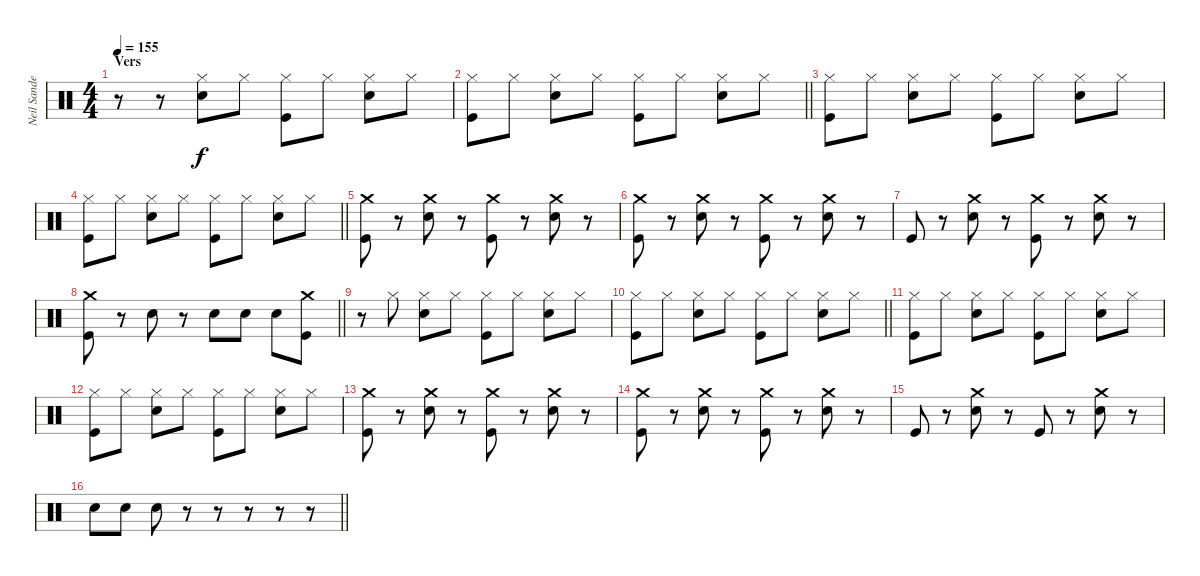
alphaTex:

\track ("Neil Sanderson" "Neil Sande") {instrument percussion}
\staff {score}
\articulation defaults
\ts (4 4)
\section ("" "Vers")
\tempo 155
\clef neutral
\ks c
r.8{dy f} r.8 ("Electric Snare (hit)" "Hi-Hat (closed)").8 "Hi-Hat (closed)".8 ("Kick (hit)" "Hi-Hat (closed)").8 "Hi-Hat (closed)".8 ("Electric Snare (hit)" "Hi-Hat (closed)").8 "Hi-Hat (closed)".8 |
\barLineRight lightlight
("Kick (hit)" "Hi-Hat (closed)").8 "Hi-Hat (closed)".8 ("Electric Snare (hit)" "Hi-Hat (closed)").8 "Hi-Hat (closed)".8 ("Kick (hit)" "Hi-Hat (closed)").8 "Hi-Hat (closed)".8 ("Electric Snare (hit)" "Hi-Hat (closed)").8 "Hi-Hat (closed)".8 |
("Kick (hit)" "Hi-Hat (closed)").8 "Hi-Hat (closed)".8 ("Electric Snare (hit)" "Hi-Hat (closed)").8 "Hi-Hat (closed)".8 ("Kick (hit)" "Hi-Hat (closed)").8 "Hi-Hat (closed)".8 ("Electric Snare (hit)" "Hi-Hat (closed)").8 "Hi-Hat (closed)".8 |
\barLineRight lightlight
("Kick (hit)" "Hi-Hat (closed)").8 "Hi-Hat (closed)".8 ("Electric Snare (hit)" "Hi-Hat (closed)").8 "Hi-Hat (closed)".8 ("Kick (hit)" "Hi-Hat (closed)").8 "Hi-Hat (closed)".8 ("Electric Snare (hit)" "Hi-Hat (closed)").8 "Hi-Hat (closed)".8 |
("Kick (hit)" "Crash medium (hit)").8 r.8 ("Electric Snare (hit)" "Crash medium (hit)").8 r.8 ("Kick (hit)" "Crash medium (hit)").8 r.8 ("Electric Snare (hit)" "Crash medium (hit)").8 r.8 |
("Kick (hit)" "Crash medium (hit)").8 r.8 ("Electric Snare (hit)" "Crash medium (hit)").8 r.8 ("Kick (hit)" "Crash medium (hit)").8 r.8 ("Electric Snare (hit)" "Crash medium (hit)").8 r.8 |
"Kick (hit)".8 r.8 ("Electric Snare (hit)" "Crash medium (hit)").8 r.8 ("Kick (hit)" "Crash medium (hit)").8 r.8 ("Electric Snare (hit)" "Crash medium (hit)").8 r.8 |
\barLineRight lightlight
("Kick (hit)" "Crash medium (hit)").8 r.8 "Electric Snare (hit)".8 r.8 "Electric Snare (hit)".8 "Electric Snare (hit)".8 "Electric Snare (hit)".8 ("Kick (hit)" "Crash medium (hit)").8 |
r.8 "Hi-Hat (closed)".8 ("Electric Snare (hit)" "Hi-Hat (closed)").8 "Hi-Hat (closed)".8 ("Kick (hit)" "Hi-Hat (closed)").8 "Hi-Hat (closed)".8 ("Electric Snare (hit)" "Hi-Hat (closed)").8 "Hi-Hat (closed)".8 |
\barLineRight lightlight
("Kick (hit)" "Hi-Hat (closed)").8 "Hi-Hat (closed)".8 ("Electric Snare (hit)" "Hi-Hat (closed)").8 "Hi-Hat (closed)".8 ("Kick (hit)" "Hi-Hat (closed)").8 "Hi-Hat (closed)".8 ("Electric Snare (hit)" "Hi-Hat (closed)").8 "Hi-Hat (closed)".8 |
("Kick (hit)" "Hi-Hat (closed)").8 "Hi-Hat (closed)".8 ("Electric Snare (hit)" "Hi-Hat (closed)").8 "Hi-Hat (closed)".8 ("Kick (hit)" "Hi-Hat (closed)").8 "Hi-Hat (closed)".8 ("Electric Snare (hit)" "Hi-Hat (closed)").8 "Hi-Hat (closed)".8 |
("Kick (hit)" "Hi-Hat (closed)").8 "Hi-Hat (closed)".8 ("Electric Snare (hit)" "Hi-Hat (closed)").8 "Hi-Hat (closed)".8 ("Kick (hit)" "Hi-Hat (closed)").8 "Hi-Hat (closed)".8 ("Electric Snare (hit)" "Hi-Hat (closed)").8 "Hi-Hat (closed)".8 |
("Kick (hit)" "Crash medium (hit)").8 r.8 ("Electric Snare (hit)" "Crash medium (hit)").8 r.8 ("Kick (hit)" "Crash medium (hit)").8 r.8 ("Electric Snare (hit)" "Crash medium (hit)").8 r.8 |
("Kick (hit)" "Crash medium (hit)").8 r.8 ("Electric Snare (hit)" "Crash medium (hit)").8 r.8 ("Kick (hit)" "Crash medium (hit)").8 r.8 ("Electric Snare (hit)" "Crash medium (hit)").8 r.8 |
"Kick (hit)".8 r.8 ("Electric Snare (hit)" "Crash medium (hit)").8 r.8 "Kick (hit)".8 r.8 ("Electric Snare (hit)" "Crash medium (hit)").8 r.8 |
\barLineRight lightlight "Electric Snare (hit)".8 "Electric Snare (hit)".8 "Electric Snare (hit)".8
r.8 r.8 r.8 r.8 r.8
